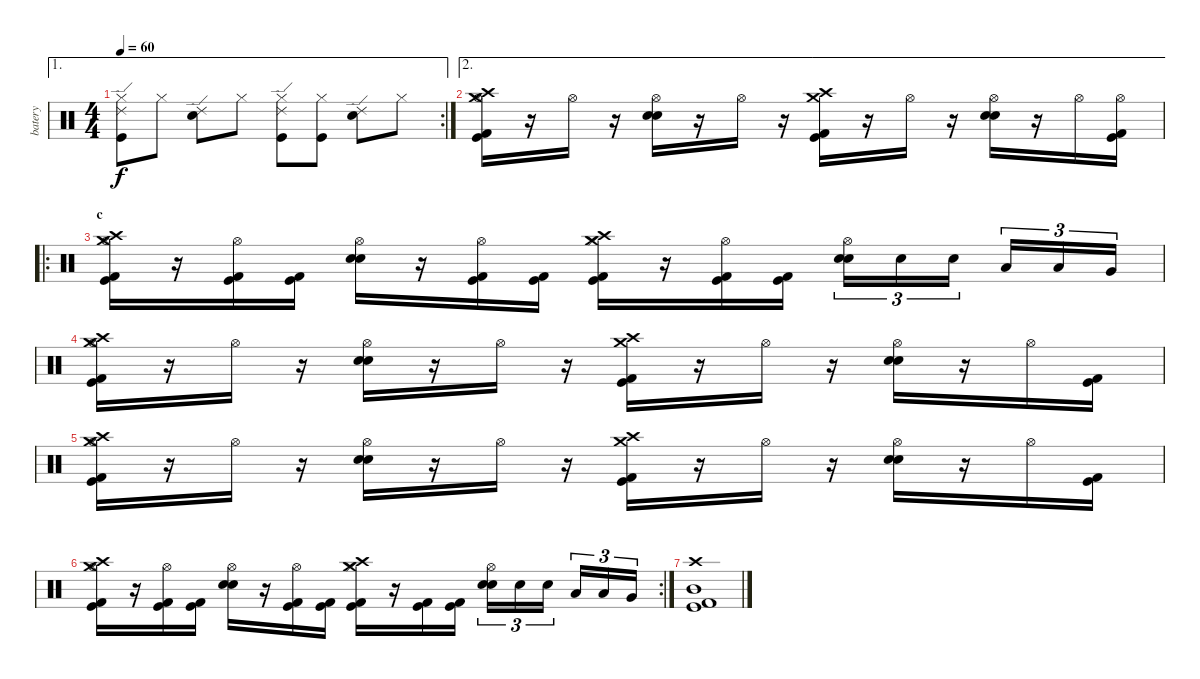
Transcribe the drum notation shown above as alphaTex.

\track ("batery" "batery") {instrument percussion}
\staff {score}
\articulation defaults
\ae 1
\rc 2
\ts (4 4)
\tempo 60
\clef neutral
\ks c
("Kick (hit)" "Hi-Hat (closed)" "Ride (edge) 2").8{dy f} "Hi-Hat (closed)".8 ("Electric Snare (hit)" "Ride (edge) 2").8 "Hi-Hat (closed)".8 ("Kick (hit)" "Hi-Hat (closed)" "Ride (edge) 2").8 ("Kick (hit)" "Hi-Hat (closed)").8 ("Electric Snare (hit)" "Ride (edge) 2").8 "Hi-Hat (closed)".8 |
\ae 2
("Kick (hit) 2" "Kick (hit)" "Hi-Hat (open)" "Crash high (hit)" "Crash medium (hit)").16 r.16 "Hi-Hat (open)".16 r.16 ("Electric Snare (hit)" "Snare (hit) 2" "Hi-Hat (open)").16 r.16 "Hi-Hat (open)".16 r.16 ("Kick (hit) 2" "Kick (hit)" "Crash high (hit)" "Crash medium (hit)").16 r.16 "Hi-Hat (open)".16 r.16 ("Electric Snare (hit)" "Snare (hit) 2" "Hi-Hat (open)").16 r.16 "Hi-Hat (open)".16 ("Kick (hit) 2" "Kick (hit)" "Hi-Hat (open)").16 |
\ro
\section ("" "c")
("Kick (hit) 2" "Kick (hit)" "Hi-Hat (open)" "Crash high (hit)" "Crash medium (hit)").16 r.16 ("Kick (hit) 2" "Kick (hit)" "Hi-Hat (open)").16 ("Kick (hit) 2" "Kick (hit)").16 ("Electric Snare (hit)" "Snare (hit) 2" "Hi-Hat (open)").16 r.16 ("Kick (hit) 2" "Kick (hit)" "Hi-Hat (open)").16 ("Kick (hit) 2" "Kick (hit)").16 ("Kick (hit) 2" "Kick (hit)" "Hi-Hat (closed)" "Crash high (hit)" "Crash medium (hit)").16 r.16 ("Kick (hit) 2" "Kick (hit)" "Hi-Hat (open)").16 ("Kick (hit) 2" "Kick (hit)").16 ("Electric Snare (hit)" "Snare (hit) 2" "Hi-Hat (open)").16{tu (3 2)} "Electric Snare (hit)".16{tu (3 2)} "Electric Snare (hit)".16{tu (3 2)} "Low Tom (hit)".16{tu (3 2)} "Low Tom (hit)".16{tu (3 2)} "Very Low Tom (hit)".16{tu (3 2)} |
("Kick (hit) 2" "Kick (hit)" "Hi-Hat (open)" "Crash high (hit)" "Crash medium (hit)").16 r.16 "Hi-Hat (open)".16 r.16 ("Electric Snare (hit)" "Snare (hit) 2" "Hi-Hat (open)").16 r.16 "Hi-Hat (open)".16 r.16 ("Kick (hit) 2" "Kick (hit)" "Crash high (hit)" "Crash medium (hit)").16 r.16 "Hi-Hat (open)".16 r.16 ("Electric Snare (hit)" "Snare (hit) 2" "Hi-Hat (open)").16 r.16 "Hi-Hat (open)".16 ("Kick (hit) 2" "Kick (hit)").16 |
("Kick (hit) 2" "Kick (hit)" "Hi-Hat (open)" "Crash high (hit)" "Crash medium (hit)").16 r.16 "Hi-Hat (open)".16 r.16 ("Electric Snare (hit)" "Snare (hit) 2" "Hi-Hat (open)").16 r.16 "Hi-Hat (open)".16 r.16 ("Kick (hit) 2" "Kick (hit)" "Crash high (hit)" "Crash medium (hit)").16 r.16 "Hi-Hat (open)".16 r.16 ("Electric Snare (hit)" "Snare (hit) 2" "Hi-Hat (open)").16 r.16 "Hi-Hat (open)".16 ("Kick (hit) 2" "Kick (hit)").16 |
\rc 2
("Kick (hit) 2" "Kick (hit)" "Hi-Hat (open)" "Crash high (hit)" "Crash medium (hit)").16 r.16 ("Kick (hit) 2" "Kick (hit)" "Hi-Hat (open)").16 ("Kick (hit) 2" "Kick (hit)").16 ("Electric Snare (hit)" "Snare (hit) 2" "Hi-Hat (open)").16 r.16 ("Kick (hit) 2" "Kick (hit)" "Hi-Hat (open)").16 ("Kick (hit) 2" "Kick (hit)").16 ("Kick (hit) 2" "Kick (hit)" "Hi-Hat (closed)" "Crash high (hit)" "Crash medium (hit)").16 r.16 ("Kick (hit) 2" "Kick (hit)").16 ("Kick (hit) 2" "Kick (hit)").16 ("Electric Snare (hit)" "Snare (hit) 2" "Hi-Hat (open)").16{tu (3 2)} "Electric Snare (hit)".16{tu (3 2)} "Electric Snare (hit)".16{tu (3 2)} "Low Tom (hit)".16{tu (3 2)} "Low Tom (hit)".16{tu (3 2)} "Very Low Tom (hit)".16{tu (3 2)} |
("Kick (hit) 2" "Kick (hit)" "Mid Tom (hit)" "Crash high (hit)").1
